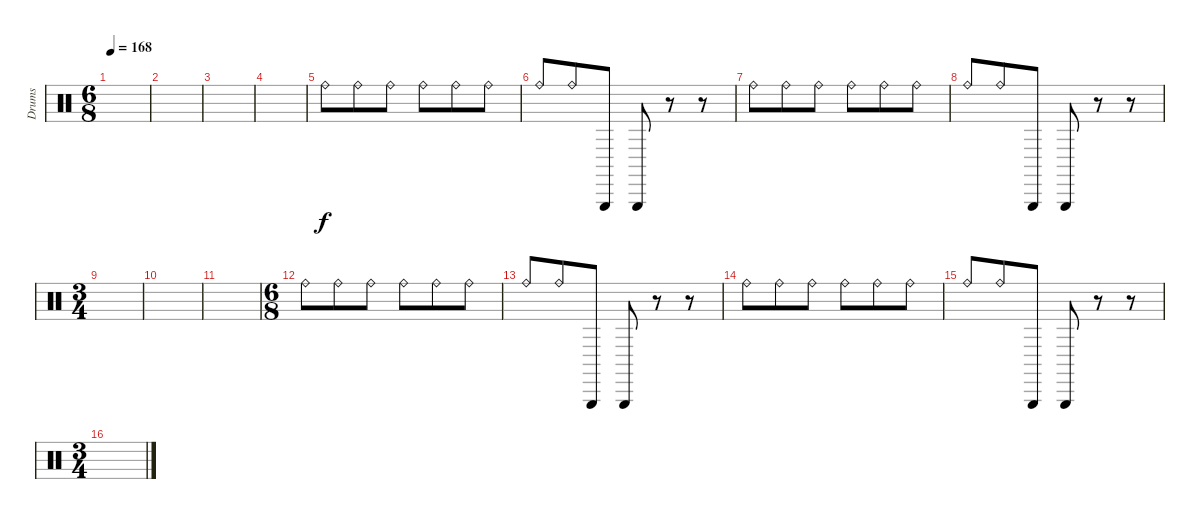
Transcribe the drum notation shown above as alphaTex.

\track ("Drums" "Drums") {instrument percussion}
\staff {score}
\articulation defaults
\ts (6 8)
\tempo 168
\clef neutral
\ks c
|
|
|
|
"Ride (bell)".8{dy f} "Ride (bell)".8 "Ride (bell)".8 "Ride (bell)".8 "Ride (bell)".8 "Ride (bell)".8 |
"Ride (bell)".8 "Ride (bell)".8 "Triangle (hit)".8 "Triangle (hit)".8 r.8 r.8 |
"Ride (bell)".8 "Ride (bell)".8 "Ride (bell)".8 "Ride (bell)".8 "Ride (bell)".8 "Ride (bell)".8 |
"Ride (bell)".8 "Ride (bell)".8 "Triangle (hit)".8 "Triangle (hit)".8 r.8 r.8 |
\ts (3 4)
|
|
|
\ts (6 8)
"Ride (bell)".8 "Ride (bell)".8 "Ride (bell)".8 "Ride (bell)".8 "Ride (bell)".8 "Ride (bell)".8 |
"Ride (bell)".8 "Ride (bell)".8 "Triangle (hit)".8 "Triangle (hit)".8 r.8 r.8 |
"Ride (bell)".8 "Ride (bell)".8 "Ride (bell)".8 "Ride (bell)".8 "Ride (bell)".8 "Ride (bell)".8 |
"Ride (bell)".8 "Ride (bell)".8 "Triangle (hit)".8 "Triangle (hit)".8 r.8 r.8 |
\ts (3 4)
